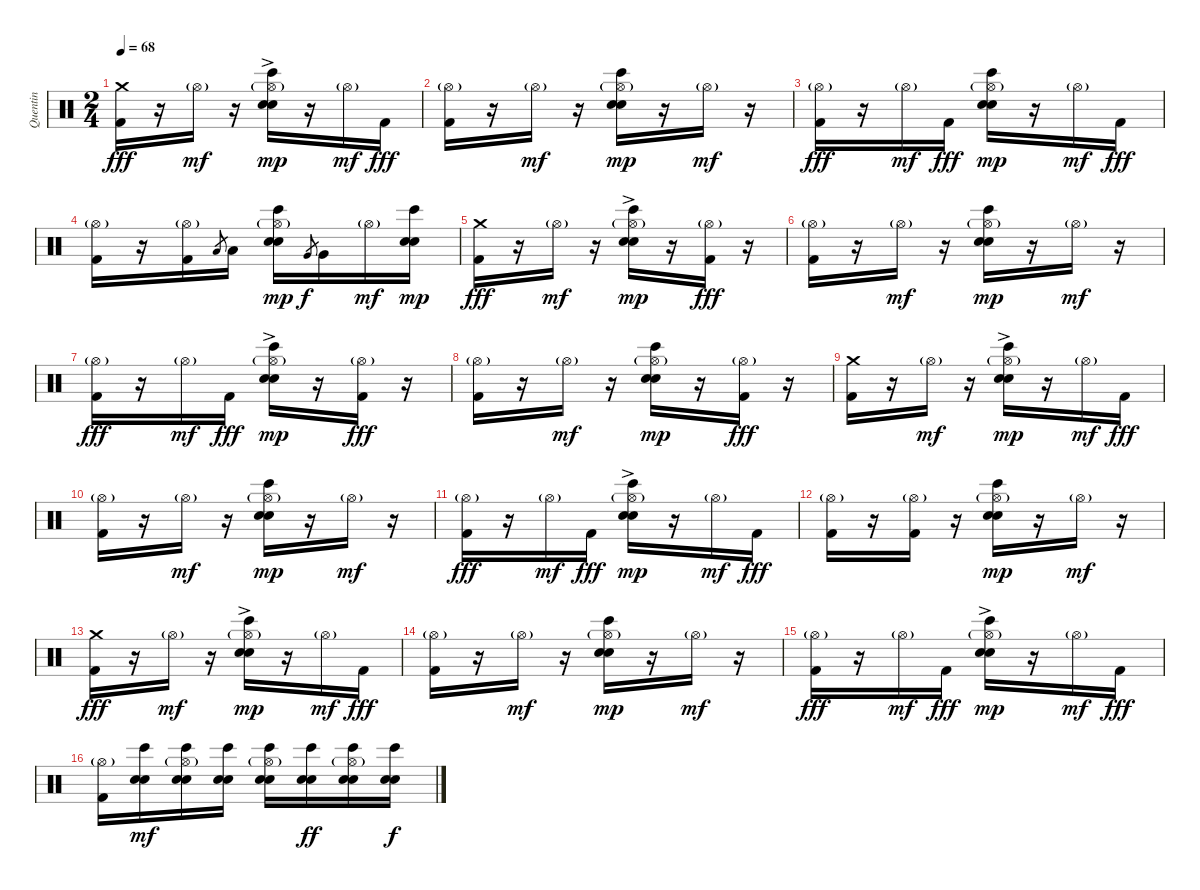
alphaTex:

\track ("Quentin" "Quentin") {instrument percussion}
\staff {score}
\articulation defaults
\ts (2 4)
\tempo 68
\clef neutral
\ks c
("Crash medium (hit)" "Kick (hit) 2").16{dy fff} r.16 "Hi-Hat (open)"{g}.16{dy mf} r.16 ("Hi-Hat (open)"{g} "Electric Snare (hit)"{ac} "Snare (hit) 2" "Bongo High (hit)").16{dy mp} r.16 "Hi-Hat (open)"{g}.16{dy mf} "Kick (hit) 2".16{dy fff} |
("Hi-Hat (open)"{g} "Kick (hit) 2").16 r.16 "Hi-Hat (open)"{g}.16{dy mf} r.16 ("Hi-Hat (open)"{g} "Electric Snare (hit)" "Snare (hit) 2" "Bongo High (hit)").16{dy mp} r.16 "Hi-Hat (open)"{g}.16{dy mf} r.16 |
("Hi-Hat (open)"{g} "Kick (hit) 2").16{dy fff} r.16 "Hi-Hat (open)"{g}.16{dy mf} "Kick (hit) 2".16{dy fff} ("Hi-Hat (open)"{g} "Electric Snare (hit)" "Snare (hit) 2" "Bongo High (hit)").16{dy mp} r.16 "Hi-Hat (open)"{g}.16{dy mf} "Kick (hit) 2".16{dy fff} |
("Hi-Hat (open)"{g} "Kick (hit) 2").16 r.16 ("Hi-Hat (open)"{g} "Kick (hit) 2").16 "Low Tom (hit)".8{gr} "Low Tom (hit)".16 ("Hi-Hat (open)"{g} "Electric Snare (hit)" "Snare (hit) 2" "Bongo High (hit)").16{dy mp} "Very Low Tom (hit)".8{gr dy f} "Very Low Tom (hit)".16 "Hi-Hat (open)"{g}.16{dy mf} ("Electric Snare (hit)" "Snare (hit) 2" "Bongo High (hit)").16{dy mp} |
("Crash medium (hit)" "Kick (hit) 2").16{dy fff} r.16 "Hi-Hat (open)"{g}.16{dy mf} r.16 ("Hi-Hat (open)"{g} "Electric Snare (hit)"{ac} "Snare (hit) 2" "Bongo High (hit)").16{dy mp} r.16 ("Hi-Hat (open)"{g} "Kick (hit) 2").16{dy fff} r.16 |
("Hi-Hat (open)"{g} "Kick (hit) 2").16 r.16 "Hi-Hat (open)"{g}.16{dy mf} r.16 ("Hi-Hat (open)"{g} "Electric Snare (hit)" "Snare (hit) 2" "Bongo High (hit)").16{dy mp} r.16 "Hi-Hat (open)"{g}.16{dy mf} r.16 |
("Hi-Hat (open)"{g} "Kick (hit) 2").16{dy fff} r.16 "Hi-Hat (open)"{g}.16{dy mf} "Kick (hit) 2".16{dy fff} ("Hi-Hat (open)"{g} "Electric Snare (hit)"{ac} "Snare (hit) 2" "Bongo High (hit)").16{dy mp} r.16 ("Hi-Hat (open)"{g} "Kick (hit) 2").16{dy fff} r.16 |
("Hi-Hat (open)"{g} "Kick (hit) 2").16 r.16 "Hi-Hat (open)"{g}.16{dy mf} r.16 ("Hi-Hat (open)"{g} "Electric Snare (hit)" "Snare (hit) 2" "Bongo High (hit)").16{dy mp} r.16 ("Hi-Hat (open)"{g} "Kick (hit) 2").16{dy fff} r.16 |
("Crash medium (hit)" "Kick (hit) 2").16 r.16 "Hi-Hat (open)"{g}.16{dy mf} r.16 ("Hi-Hat (open)"{g} "Electric Snare (hit)"{ac} "Snare (hit) 2" "Bongo High (hit)").16{dy mp} r.16 "Hi-Hat (open)"{g}.16{dy mf} "Kick (hit) 2".16{dy fff} |
("Hi-Hat (open)"{g} "Kick (hit) 2").16 r.16 "Hi-Hat (open)"{g}.16{dy mf} r.16 ("Hi-Hat (open)"{g} "Electric Snare (hit)" "Snare (hit) 2" "Bongo High (hit)").16{dy mp} r.16 "Hi-Hat (open)"{g}.16{dy mf} r.16 |
("Hi-Hat (open)"{g} "Kick (hit) 2").16{dy fff} r.16 "Hi-Hat (open)"{g}.16{dy mf} "Kick (hit) 2".16{dy fff} ("Hi-Hat (open)"{g} "Electric Snare (hit)"{ac} "Snare (hit) 2" "Bongo High (hit)").16{dy mp} r.16 "Hi-Hat (open)"{g}.16{dy mf} "Kick (hit) 2".16{dy fff} |
("Hi-Hat (open)"{g} "Kick (hit) 2").16 r.16 ("Hi-Hat (open)"{g} "Kick (hit) 2").16 r.16 ("Hi-Hat (open)"{g} "Electric Snare (hit)" "Snare (hit) 2" "Bongo High (hit)").16{dy mp} r.16 "Hi-Hat (open)"{g}.16{dy mf} r.16 |
("Crash medium (hit)" "Kick (hit) 2").16{dy fff} r.16 "Hi-Hat (open)"{g}.16{dy mf} r.16 ("Hi-Hat (open)"{g} "Electric Snare (hit)"{ac} "Snare (hit) 2" "Bongo High (hit)").16{dy mp} r.16 "Hi-Hat (open)"{g}.16{dy mf} "Kick (hit) 2".16{dy fff} |
("Hi-Hat (open)"{g} "Kick (hit) 2").16 r.16 "Hi-Hat (open)"{g}.16{dy mf} r.16 ("Hi-Hat (open)"{g} "Electric Snare (hit)" "Snare (hit) 2" "Bongo High (hit)").16{dy mp} r.16 "Hi-Hat (open)"{g}.16{dy mf} r.16 |
("Hi-Hat (open)"{g} "Kick (hit) 2").16{dy fff} r.16 "Hi-Hat (open)"{g}.16{dy mf} "Kick (hit) 2".16{dy fff} ("Hi-Hat (open)"{g} "Electric Snare (hit)"{ac} "Snare (hit) 2" "Bongo High (hit)").16{dy mp} r.16 "Hi-Hat (open)"{g}.16{dy mf} "Kick (hit) 2".16{dy fff} |
("Hi-Hat (open)"{g} "Kick (hit) 2").16 ("Electric Snare (hit)" "Snare (hit) 2" "Bongo High (hit)").16{dy mf} ("Hi-Hat (open)"{g} "Electric Snare (hit)" "Snare (hit) 2" "Bongo High (hit)").16 ("Electric Snare (hit)" "Snare (hit) 2" "Bongo High (hit)").16 ("Hi-Hat (open)"{g} "Electric Snare (hit)" "Snare (hit) 2" "Bongo High (hit)").16 ("Electric Snare (hit)" "Snare (hit) 2" "Bongo High (hit)").16{dy ff} ("Hi-Hat (open)"{g} "Electric Snare (hit)" "Snare (hit) 2" "Bongo High (hit)").16 ("Electric Snare (hit)" "Snare (hit) 2" "Bongo High (hit)").16{dy f}
